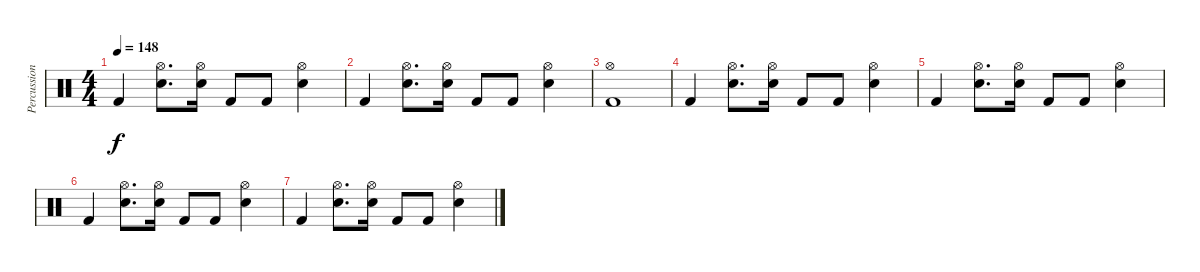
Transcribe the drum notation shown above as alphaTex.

\track ("Percussion" "Percussion") {instrument percussion}
\staff {score}
\articulation defaults
\ts (4 4)
\tempo 148
\clef neutral
\ks c "Kick (hit) 2".4{dy f}
("Hi-Hat (open)" "Electric Snare (hit)").8{d} ("Hi-Hat (open)" "Electric Snare (hit)").16 "Kick (hit) 2".8 "Kick (hit) 2".8 ("Hi-Hat (open)" "Electric Snare (hit)").4 |
"Kick (hit) 2".4 ("Hi-Hat (open)" "Electric Snare (hit)").8{d} ("Hi-Hat (open)" "Electric Snare (hit)").16 "Kick (hit) 2".8 "Kick (hit) 2".8 ("Hi-Hat (open)" "Electric Snare (hit)").4 |
("Hi-Hat (open)" "Kick (hit) 2").1 |
"Kick (hit) 2".4 ("Hi-Hat (open)" "Electric Snare (hit)").8{d} ("Hi-Hat (open)" "Electric Snare (hit)").16 "Kick (hit) 2".8 "Kick (hit) 2".8 ("Hi-Hat (open)" "Electric Snare (hit)").4 |
"Kick (hit) 2".4 ("Hi-Hat (open)" "Electric Snare (hit)").8{d} ("Hi-Hat (open)" "Electric Snare (hit)").16 "Kick (hit) 2".8 "Kick (hit) 2".8 ("Hi-Hat (open)" "Electric Snare (hit)").4 |
"Kick (hit) 2".4 ("Hi-Hat (open)" "Electric Snare (hit)").8{d} ("Hi-Hat (open)" "Electric Snare (hit)").16 "Kick (hit) 2".8 "Kick (hit) 2".8 ("Hi-Hat (open)" "Electric Snare (hit)").4 |
"Kick (hit) 2".4 ("Hi-Hat (open)" "Electric Snare (hit)").8{d} ("Hi-Hat (open)" "Electric Snare (hit)").16 "Kick (hit) 2".8 "Kick (hit) 2".8 ("Hi-Hat (open)" "Electric Snare (hit)").4
